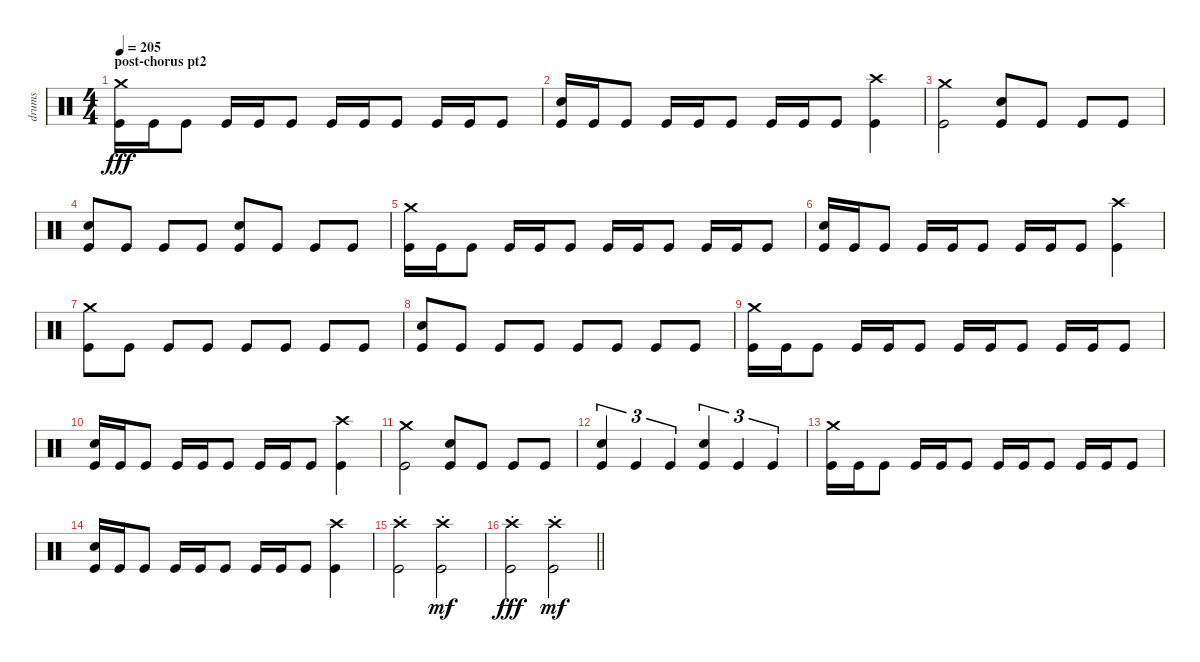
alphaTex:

\track ("drums" "drums") {instrument percussion}
\staff {score}
\articulation defaults
\ts (4 4)
\section ("" "post-chorus pt2")
\tempo 205
\clef neutral
\ks c
("Crash medium (hit)" "Kick (hit)").16{dy fff} "Kick (hit)".16 "Kick (hit)".8 "Kick (hit)".16 "Kick (hit)".16 "Kick (hit)".8 "Kick (hit)".16 "Kick (hit)".16 "Kick (hit)".8 "Kick (hit)".16 "Kick (hit)".16 "Kick (hit)".8 |
("Electric Snare (hit)" "Kick (hit)").16 "Kick (hit)".16 "Kick (hit)".8 "Kick (hit)".16 "Kick (hit)".16 "Kick (hit)".8 "Kick (hit)".16 "Kick (hit)".16 "Kick (hit)".8 ("Crash high (hit)" "Kick (hit)").4 |
("Crash medium (hit)" "Kick (hit)").2 ("Electric Snare (hit)" "Kick (hit)").8 "Kick (hit)".8 "Kick (hit)".8 "Kick (hit)".8 |
("Electric Snare (hit)" "Kick (hit)").8 "Kick (hit)".8 "Kick (hit)".8 "Kick (hit)".8 ("Electric Snare (hit)" "Kick (hit)").8 "Kick (hit)".8 "Kick (hit)".8 "Kick (hit)".8 |
("Crash medium (hit)" "Kick (hit)").16 "Kick (hit)".16 "Kick (hit)".8 "Kick (hit)".16 "Kick (hit)".16 "Kick (hit)".8 "Kick (hit)".16 "Kick (hit)".16 "Kick (hit)".8 "Kick (hit)".16 "Kick (hit)".16 "Kick (hit)".8 |
("Electric Snare (hit)" "Kick (hit)").16 "Kick (hit)".16 "Kick (hit)".8 "Kick (hit)".16 "Kick (hit)".16 "Kick (hit)".8 "Kick (hit)".16 "Kick (hit)".16 "Kick (hit)".8 ("Crash high (hit)" "Kick (hit)").4 |
("Crash medium (hit)" "Kick (hit)").8 "Kick (hit)".8 "Kick (hit)".8 "Kick (hit)".8 "Kick (hit)".8 "Kick (hit)".8 "Kick (hit)".8 "Kick (hit)".8 |
("Electric Snare (hit)" "Kick (hit)").8 "Kick (hit)".8 "Kick (hit)".8 "Kick (hit)".8 "Kick (hit)".8 "Kick (hit)".8 "Kick (hit)".8 "Kick (hit)".8 |
("Crash medium (hit)" "Kick (hit)").16 "Kick (hit)".16 "Kick (hit)".8 "Kick (hit)".16 "Kick (hit)".16 "Kick (hit)".8 "Kick (hit)".16 "Kick (hit)".16 "Kick (hit)".8 "Kick (hit)".16 "Kick (hit)".16 "Kick (hit)".8 |
("Electric Snare (hit)" "Kick (hit)").16 "Kick (hit)".16 "Kick (hit)".8 "Kick (hit)".16 "Kick (hit)".16 "Kick (hit)".8 "Kick (hit)".16 "Kick (hit)".16 "Kick (hit)".8 ("Crash high (hit)" "Kick (hit)").4 |
("Crash medium (hit)" "Kick (hit)").2 ("Electric Snare (hit)" "Kick (hit)").8 "Kick (hit)".8 "Kick (hit)".8 "Kick (hit)".8 |
("Electric Snare (hit)" "Kick (hit)").4{tu (3 2)} "Kick (hit)".4{tu (3 2)} "Kick (hit)".4{tu (3 2)} ("Electric Snare (hit)" "Kick (hit)").4{tu (3 2)} "Kick (hit)".4{tu (3 2)} "Kick (hit)".4{tu (3 2)} |
("Crash medium (hit)" "Kick (hit)").16 "Kick (hit)".16 "Kick (hit)".8 "Kick (hit)".16 "Kick (hit)".16 "Kick (hit)".8 "Kick (hit)".16 "Kick (hit)".16 "Kick (hit)".8 "Kick (hit)".16 "Kick (hit)".16 "Kick (hit)".8 |
("Electric Snare (hit)" "Kick (hit)").16 "Kick (hit)".16 "Kick (hit)".8 "Kick (hit)".16 "Kick (hit)".16 "Kick (hit)".8 "Kick (hit)".16 "Kick (hit)".16 "Kick (hit)".8 ("Crash high (hit)" "Kick (hit)").4 |
("Crash high (hit)"{st} "Kick (hit)").2 ("Crash high (hit)"{st} "Kick (hit)").2{dy mf} |
\barLineRight lightlight
("Crash high (hit)"{st} "Kick (hit)").2{dy fff} ("Crash high (hit)"{st} "Kick (hit)").2{dy mf}
